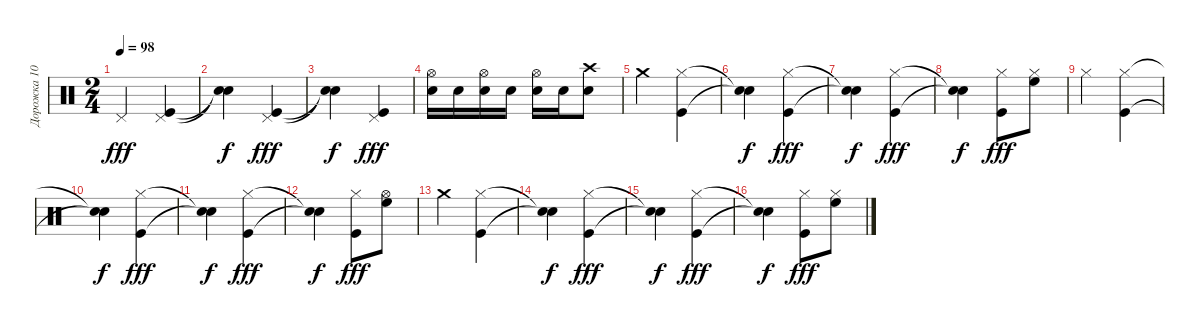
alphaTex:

\track ("Дорожка 10" "Дорожка 10") {instrument percussion}
\staff {score}
\articulation defaults
\ts (2 4)
\tempo 98
\clef neutral
\ks c "Pedal Hi-Hat (hit)".4{dy fff}
("Kick (hit)" "Pedal Hi-Hat (hit)").4 |
("Snare (hit)"{t} "Snare (hit)"{t}).4{dy f} ("Kick (hit)" "Pedal Hi-Hat (hit)").4{dy fff} |
("Snare (hit)"{t} "Snare (hit)"{t}).4{dy f} ("Kick (hit)" "Pedal Hi-Hat (hit)").4{dy fff} |
("Electric Snare (hit)" "Hi-Hat (open)").16 "Electric Snare (hit)".16 ("Electric Snare (hit)" "Hi-Hat (open)").16 "Snare (hit) 2".16 ("Snare (hit) 2" "Hi-Hat (open)").16 "Snare (hit) 2".16 ("Snare (hit) 2" "Crash high (hit)").8 |
"Crash medium (hit)".4 ("Kick (hit)" "Hi-Hat (closed)").4 |
("Snare (hit)"{t} "Snare (hit)"{t}).4{dy f} ("Kick (hit)" "Hi-Hat (closed)").4{dy fff} |
("Snare (hit)"{t} "Snare (hit)"{t}).4{dy f} ("Kick (hit)" "Hi-Hat (closed)").4{dy fff} |
("Snare (hit)"{t} "Snare (hit)"{t}).4{dy f} ("Kick (hit)" "Hi-Hat (closed)").8{dy fff} ("High Floor Tom (hit)" "Hi-Hat (closed)").8 |
"Hi-Hat (closed)".4 ("Kick (hit)" "Hi-Hat (closed)").4 |
("Snare (hit)"{t} "Snare (hit)"{t}).4{dy f} ("Kick (hit)" "Hi-Hat (closed)").4{dy fff} |
("Snare (hit)"{t} "Snare (hit)"{t}).4{dy f} ("Kick (hit)" "Hi-Hat (closed)").4{dy fff} |
("Snare (hit)"{t} "Snare (hit)"{t}).4{dy f} ("Kick (hit)" "Hi-Hat (closed)").8{dy fff} ("High Floor Tom (hit)" "Hi-Hat (open)").8 |
"Crash medium (hit)".4 ("Kick (hit)" "Hi-Hat (closed)").4 |
("Snare (hit)"{t} "Snare (hit)"{t}).4{dy f} ("Kick (hit)" "Hi-Hat (closed)").4{dy fff} |
("Snare (hit)"{t} "Snare (hit)"{t}).4{dy f} ("Kick (hit)" "Hi-Hat (closed)").4{dy fff} |
("Snare (hit)"{t} "Snare (hit)"{t}).4{dy f} ("Kick (hit)" "Hi-Hat (closed)").8{dy fff} ("High Floor Tom (hit)" "Hi-Hat (closed)").8
